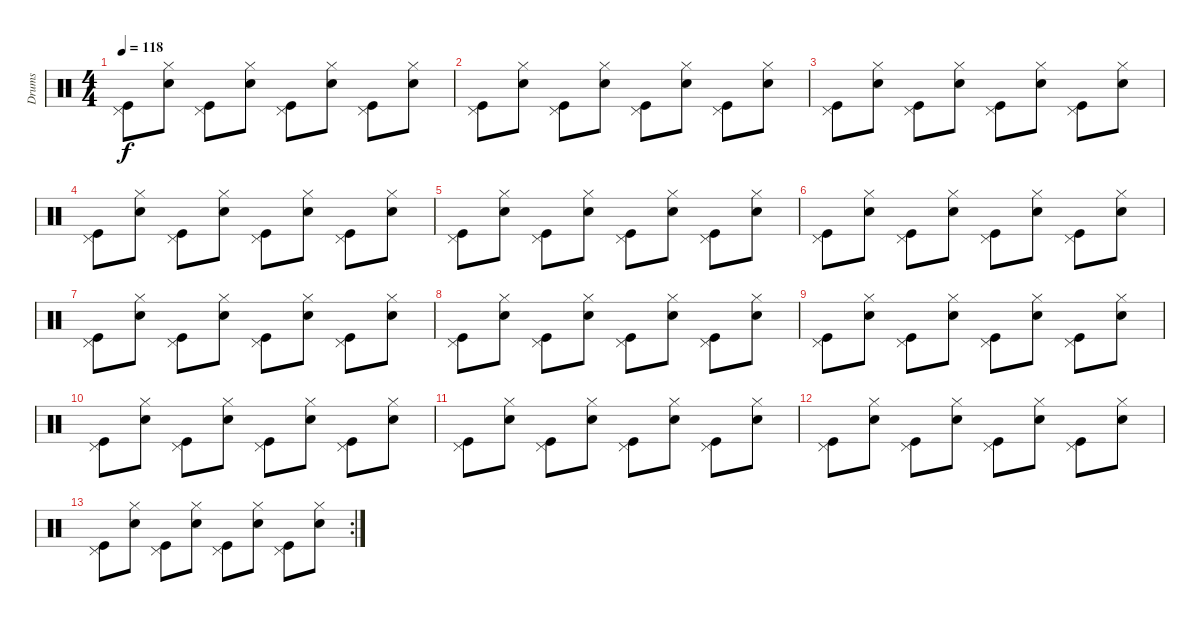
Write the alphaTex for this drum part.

\track ("Drums" "Drums") {instrument percussion}
\staff {score}
\articulation defaults
\ts (4 4)
\tempo 118
\clef neutral
\ks c
("Pedal Hi-Hat (hit)" "Kick (hit)").8{dy f} ("Hi-Hat (closed)" "Electric Snare (hit)").8 ("Pedal Hi-Hat (hit)" "Kick (hit)").8 ("Hi-Hat (closed)" "Electric Snare (hit)").8 ("Pedal Hi-Hat (hit)" "Kick (hit)").8 ("Hi-Hat (closed)" "Electric Snare (hit)").8 ("Pedal Hi-Hat (hit)" "Kick (hit)").8 ("Hi-Hat (closed)" "Electric Snare (hit)").8 |
("Pedal Hi-Hat (hit)" "Kick (hit)").8 ("Hi-Hat (closed)" "Electric Snare (hit)").8 ("Pedal Hi-Hat (hit)" "Kick (hit)").8 ("Hi-Hat (closed)" "Electric Snare (hit)").8 ("Pedal Hi-Hat (hit)" "Kick (hit)").8 ("Hi-Hat (closed)" "Electric Snare (hit)").8 ("Pedal Hi-Hat (hit)" "Kick (hit)").8 ("Hi-Hat (closed)" "Electric Snare (hit)").8 |
("Pedal Hi-Hat (hit)" "Kick (hit)").8 ("Hi-Hat (closed)" "Electric Snare (hit)").8 ("Pedal Hi-Hat (hit)" "Kick (hit)").8 ("Hi-Hat (closed)" "Electric Snare (hit)").8 ("Pedal Hi-Hat (hit)" "Kick (hit)").8 ("Hi-Hat (closed)" "Electric Snare (hit)").8 ("Pedal Hi-Hat (hit)" "Kick (hit)").8 ("Hi-Hat (closed)" "Electric Snare (hit)").8 |
("Pedal Hi-Hat (hit)" "Kick (hit)").8 ("Hi-Hat (closed)" "Electric Snare (hit)").8 ("Pedal Hi-Hat (hit)" "Kick (hit)").8 ("Hi-Hat (closed)" "Electric Snare (hit)").8 ("Pedal Hi-Hat (hit)" "Kick (hit)").8 ("Hi-Hat (closed)" "Electric Snare (hit)").8 ("Pedal Hi-Hat (hit)" "Kick (hit)").8 ("Hi-Hat (closed)" "Electric Snare (hit)").8 |
("Pedal Hi-Hat (hit)" "Kick (hit)").8 ("Hi-Hat (closed)" "Electric Snare (hit)").8 ("Pedal Hi-Hat (hit)" "Kick (hit)").8 ("Hi-Hat (closed)" "Electric Snare (hit)").8 ("Pedal Hi-Hat (hit)" "Kick (hit)").8 ("Hi-Hat (closed)" "Electric Snare (hit)").8 ("Pedal Hi-Hat (hit)" "Kick (hit)").8 ("Hi-Hat (closed)" "Electric Snare (hit)").8 |
("Pedal Hi-Hat (hit)" "Kick (hit)").8 ("Hi-Hat (closed)" "Electric Snare (hit)").8 ("Pedal Hi-Hat (hit)" "Kick (hit)").8 ("Hi-Hat (closed)" "Electric Snare (hit)").8 ("Pedal Hi-Hat (hit)" "Kick (hit)").8 ("Hi-Hat (closed)" "Electric Snare (hit)").8 ("Pedal Hi-Hat (hit)" "Kick (hit)").8 ("Hi-Hat (closed)" "Electric Snare (hit)").8 |
("Pedal Hi-Hat (hit)" "Kick (hit)").8 ("Hi-Hat (closed)" "Electric Snare (hit)").8 ("Pedal Hi-Hat (hit)" "Kick (hit)").8 ("Hi-Hat (closed)" "Electric Snare (hit)").8 ("Pedal Hi-Hat (hit)" "Kick (hit)").8 ("Hi-Hat (closed)" "Electric Snare (hit)").8 ("Pedal Hi-Hat (hit)" "Kick (hit)").8 ("Hi-Hat (closed)" "Electric Snare (hit)").8 |
("Pedal Hi-Hat (hit)" "Kick (hit)").8 ("Hi-Hat (closed)" "Electric Snare (hit)").8 ("Pedal Hi-Hat (hit)" "Kick (hit)").8 ("Hi-Hat (closed)" "Electric Snare (hit)").8 ("Pedal Hi-Hat (hit)" "Kick (hit)").8 ("Hi-Hat (closed)" "Electric Snare (hit)").8 ("Pedal Hi-Hat (hit)" "Kick (hit)").8 ("Hi-Hat (closed)" "Electric Snare (hit)").8 |
("Pedal Hi-Hat (hit)" "Kick (hit)").8 ("Hi-Hat (closed)" "Electric Snare (hit)").8 ("Pedal Hi-Hat (hit)" "Kick (hit)").8 ("Hi-Hat (closed)" "Electric Snare (hit)").8 ("Pedal Hi-Hat (hit)" "Kick (hit)").8 ("Hi-Hat (closed)" "Electric Snare (hit)").8 ("Pedal Hi-Hat (hit)" "Kick (hit)").8 ("Hi-Hat (closed)" "Electric Snare (hit)").8 |
("Pedal Hi-Hat (hit)" "Kick (hit)").8 ("Hi-Hat (closed)" "Electric Snare (hit)").8 ("Pedal Hi-Hat (hit)" "Kick (hit)").8 ("Hi-Hat (closed)" "Electric Snare (hit)").8 ("Pedal Hi-Hat (hit)" "Kick (hit)").8 ("Hi-Hat (closed)" "Electric Snare (hit)").8 ("Pedal Hi-Hat (hit)" "Kick (hit)").8 ("Hi-Hat (closed)" "Electric Snare (hit)").8 |
("Pedal Hi-Hat (hit)" "Kick (hit)").8 ("Hi-Hat (closed)" "Electric Snare (hit)").8 ("Pedal Hi-Hat (hit)" "Kick (hit)").8 ("Hi-Hat (closed)" "Electric Snare (hit)").8 ("Pedal Hi-Hat (hit)" "Kick (hit)").8 ("Hi-Hat (closed)" "Electric Snare (hit)").8 ("Pedal Hi-Hat (hit)" "Kick (hit)").8 ("Hi-Hat (closed)" "Electric Snare (hit)").8 |
("Pedal Hi-Hat (hit)" "Kick (hit)").8 ("Hi-Hat (closed)" "Electric Snare (hit)").8 ("Pedal Hi-Hat (hit)" "Kick (hit)").8 ("Hi-Hat (closed)" "Electric Snare (hit)").8 ("Pedal Hi-Hat (hit)" "Kick (hit)").8 ("Hi-Hat (closed)" "Electric Snare (hit)").8 ("Pedal Hi-Hat (hit)" "Kick (hit)").8 ("Hi-Hat (closed)" "Electric Snare (hit)").8 |
\rc 2
("Pedal Hi-Hat (hit)" "Kick (hit)").8 ("Hi-Hat (closed)" "Electric Snare (hit)").8 ("Pedal Hi-Hat (hit)" "Kick (hit)").8 ("Hi-Hat (closed)" "Electric Snare (hit)").8 ("Pedal Hi-Hat (hit)" "Kick (hit)").8 ("Hi-Hat (closed)" "Electric Snare (hit)").8 ("Pedal Hi-Hat (hit)" "Kick (hit)").8 ("Hi-Hat (closed)" "Electric Snare (hit)").8
